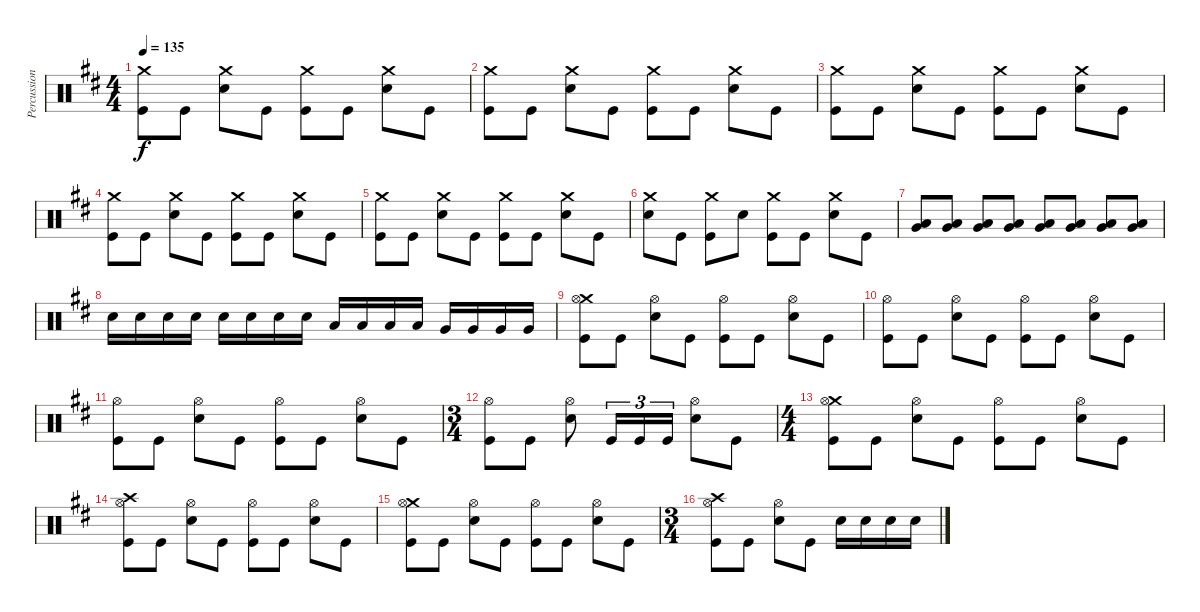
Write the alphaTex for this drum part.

\track ("Percussion" "Percussion") {instrument percussion}
\staff {score}
\articulation defaults
\ts (4 4)
\tempo 135
\clef neutral
\ks d
("Crash medium (hit)" "Kick (hit)").8{dy f} "Kick (hit)".8 ("Crash medium (hit)" "Electric Snare (hit)").8 "Kick (hit)".8 ("Crash medium (hit)" "Kick (hit)").8 "Kick (hit)".8 ("Crash medium (hit)" "Electric Snare (hit)").8 "Kick (hit)".8 |
("Crash medium (hit)" "Kick (hit)").8 "Kick (hit)".8 ("Crash medium (hit)" "Electric Snare (hit)").8 "Kick (hit)".8 ("Crash medium (hit)" "Kick (hit)").8 "Kick (hit)".8 ("Crash medium (hit)" "Electric Snare (hit)").8 "Kick (hit)".8 |
("Crash medium (hit)" "Kick (hit)").8 "Kick (hit)".8 ("Crash medium (hit)" "Electric Snare (hit)").8 "Kick (hit)".8 ("Crash medium (hit)" "Kick (hit)").8 "Kick (hit)".8 ("Crash medium (hit)" "Electric Snare (hit)").8 "Kick (hit)".8 |
("Crash medium (hit)" "Kick (hit)").8 "Kick (hit)".8 ("Crash medium (hit)" "Electric Snare (hit)").8 "Kick (hit)".8 ("Crash medium (hit)" "Kick (hit)").8 "Kick (hit)".8 ("Crash medium (hit)" "Electric Snare (hit)").8 "Kick (hit)".8 |
("Crash medium (hit)" "Kick (hit)").8 "Kick (hit)".8 ("Crash medium (hit)" "Electric Snare (hit)").8 "Kick (hit)".8 ("Crash medium (hit)" "Kick (hit)").8 "Kick (hit)".8 ("Crash medium (hit)" "Electric Snare (hit)").8 "Kick (hit)".8 |
("Crash medium (hit)" "Electric Snare (hit)").8 "Kick (hit)".8 ("Crash medium (hit)" "Kick (hit)").8 "Electric Snare (hit)".8 ("Crash medium (hit)" "Kick (hit)").8 "Kick (hit)".8 ("Crash medium (hit)" "Electric Snare (hit)").8 "Kick (hit)".8 |
("Low Floor Tom (hit)" "Very Low Tom (hit)").8 ("Low Floor Tom (hit)" "Very Low Tom (hit)").8 ("Low Floor Tom (hit)" "Very Low Tom (hit)").8 ("Low Floor Tom (hit)" "Very Low Tom (hit)").8 ("Low Floor Tom (hit)" "Very Low Tom (hit)").8 ("Low Floor Tom (hit)" "Very Low Tom (hit)").8 ("Low Floor Tom (hit)" "Very Low Tom (hit)").8 ("Low Floor Tom (hit)" "Very Low Tom (hit)").8 |
"Electric Snare (hit)".16 "Electric Snare (hit)".16 "Electric Snare (hit)".16 "Electric Snare (hit)".16 "Electric Snare (hit)".16 "Electric Snare (hit)".16 "Electric Snare (hit)".16 "Electric Snare (hit)".16 "Low Tom (hit)".16 "Low Tom (hit)".16 "Low Tom (hit)".16 "Low Tom (hit)".16 "Very Low Tom (hit)".16 "Very Low Tom (hit)".16 "Very Low Tom (hit)".16 "Very Low Tom (hit)".16 |
("Crash medium (hit)" "Hi-Hat (open)" "Kick (hit)").8 "Kick (hit)".8 ("Hi-Hat (open)" "Electric Snare (hit)").8 "Kick (hit)".8 ("Hi-Hat (open)" "Kick (hit)").8 "Kick (hit)".8 ("Hi-Hat (open)" "Electric Snare (hit)").8 "Kick (hit)".8 |
("Hi-Hat (open)" "Kick (hit)").8 "Kick (hit)".8 ("Hi-Hat (open)" "Electric Snare (hit)").8 "Kick (hit)".8 ("Hi-Hat (open)" "Kick (hit)").8 "Kick (hit)".8 ("Hi-Hat (open)" "Electric Snare (hit)").8 "Kick (hit)".8 |
("Hi-Hat (open)" "Kick (hit)").8 "Kick (hit)".8 ("Hi-Hat (open)" "Electric Snare (hit)").8 "Kick (hit)".8 ("Hi-Hat (open)" "Kick (hit)").8 "Kick (hit)".8 ("Hi-Hat (open)" "Electric Snare (hit)").8 "Kick (hit)".8 |
\ts (3 4)
("Hi-Hat (open)" "Kick (hit)").8 "Kick (hit)".8 ("Hi-Hat (open)" "Electric Snare (hit)").8 "Kick (hit)".16{tu (3 2)} "Kick (hit)".16{tu (3 2)} "Kick (hit)".16{tu (3 2)} ("Hi-Hat (open)" "Electric Snare (hit)").8 "Kick (hit)".8 |
\ts (4 4)
("Crash medium (hit)" "Hi-Hat (open)" "Kick (hit)").8 "Kick (hit)".8 ("Hi-Hat (open)" "Electric Snare (hit)").8 "Kick (hit)".8 ("Hi-Hat (open)" "Kick (hit)").8 "Kick (hit)".8 ("Hi-Hat (open)" "Electric Snare (hit)").8 "Kick (hit)".8 |
("Crash high (hit)" "Hi-Hat (open)" "Kick (hit)").8 "Kick (hit)".8 ("Hi-Hat (open)" "Electric Snare (hit)").8 "Kick (hit)".8 ("Hi-Hat (open)" "Kick (hit)").8 "Kick (hit)".8 ("Hi-Hat (open)" "Electric Snare (hit)").8 "Kick (hit)".8 |
("Crash medium (hit)" "Hi-Hat (open)" "Kick (hit)").8 "Kick (hit)".8 ("Hi-Hat (open)" "Electric Snare (hit)").8 "Kick (hit)".8 ("Hi-Hat (open)" "Kick (hit)").8 "Kick (hit)".8 ("Hi-Hat (open)" "Electric Snare (hit)").8 "Kick (hit)".8 |
\ts (3 4)
("Crash high (hit)" "Hi-Hat (open)" "Kick (hit)").8 "Kick (hit)".8 ("Hi-Hat (open)" "Electric Snare (hit)").8 "Kick (hit)".8 "Electric Snare (hit)".16 "Electric Snare (hit)".16 "Electric Snare (hit)".16 "Electric Snare (hit)".16
